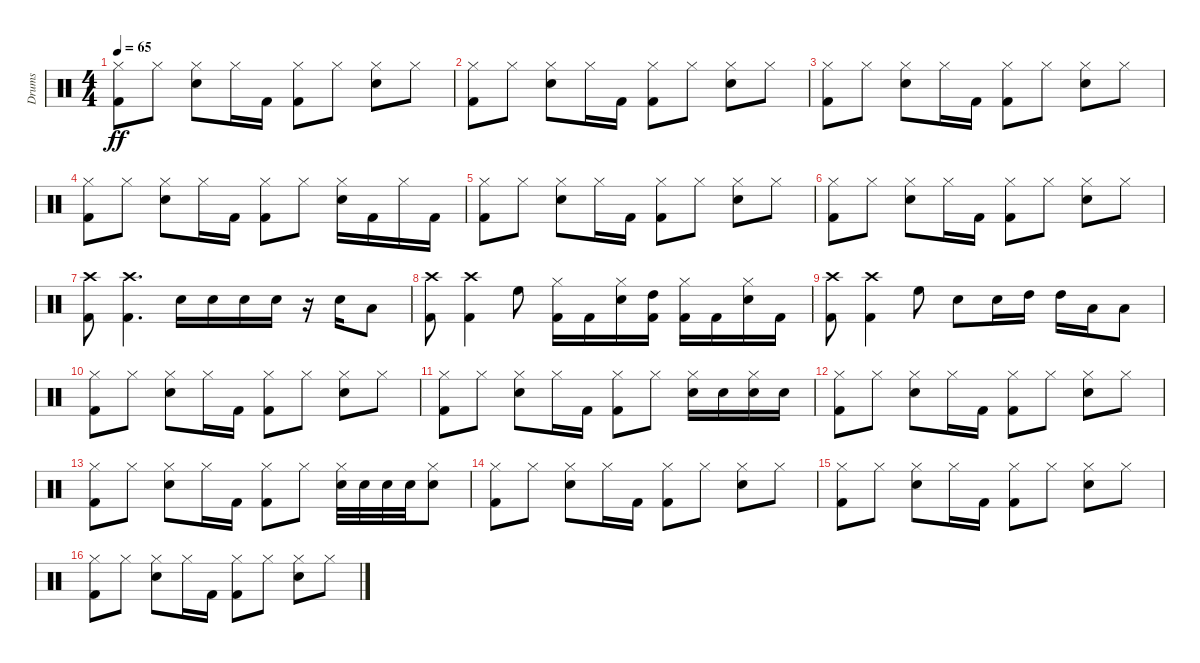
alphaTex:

\track ("Drums" "Drums") {instrument percussion}
\staff {score}
\articulation defaults
\ts (4 4)
\tempo 65
\clef neutral
\ks c
("Hi-Hat (closed)" "Kick (hit) 2").8{dy ff} "Hi-Hat (closed)".8 ("Snare (hit) 2" "Hi-Hat (closed)").8 "Hi-Hat (closed)".16 "Kick (hit) 2".16 ("Hi-Hat (closed)" "Kick (hit) 2").8 "Hi-Hat (closed)".8 ("Hi-Hat (closed)" "Snare (hit) 2").8 "Hi-Hat (closed)".8 |
("Hi-Hat (closed)" "Kick (hit) 2").8 "Hi-Hat (closed)".8 ("Snare (hit) 2" "Hi-Hat (closed)").8 "Hi-Hat (closed)".16 "Kick (hit) 2".16 ("Hi-Hat (closed)" "Kick (hit) 2").8 "Hi-Hat (closed)".8 ("Hi-Hat (closed)" "Snare (hit) 2").8 "Hi-Hat (closed)".8 |
("Hi-Hat (closed)" "Kick (hit) 2").8 "Hi-Hat (closed)".8 ("Snare (hit) 2" "Hi-Hat (closed)").8 "Hi-Hat (closed)".16 "Kick (hit) 2".16 ("Hi-Hat (closed)" "Kick (hit) 2").8 "Hi-Hat (closed)".8 ("Hi-Hat (closed)" "Snare (hit) 2").8 "Hi-Hat (closed)".8 |
("Hi-Hat (closed)" "Kick (hit) 2").8 "Hi-Hat (closed)".8 ("Snare (hit) 2" "Hi-Hat (closed)").8 "Hi-Hat (closed)".16 "Kick (hit) 2".16 ("Hi-Hat (closed)" "Kick (hit) 2").8 "Hi-Hat (closed)".8 ("Hi-Hat (closed)" "Snare (hit) 2").16 "Kick (hit) 2".16 "Hi-Hat (closed)".16 "Kick (hit) 2".16 |
("Hi-Hat (closed)" "Kick (hit) 2").8 "Hi-Hat (closed)".8 ("Snare (hit) 2" "Hi-Hat (closed)").8 "Hi-Hat (closed)".16 "Kick (hit) 2".16 ("Hi-Hat (closed)" "Kick (hit) 2").8 "Hi-Hat (closed)".8 ("Hi-Hat (closed)" "Snare (hit) 2").8 "Hi-Hat (closed)".8 |
("Hi-Hat (closed)" "Kick (hit) 2").8 "Hi-Hat (closed)".8 ("Snare (hit) 2" "Hi-Hat (closed)").8 "Hi-Hat (closed)".16 "Kick (hit) 2".16 ("Hi-Hat (closed)" "Kick (hit) 2").8 "Hi-Hat (closed)".8 ("Hi-Hat (closed)" "Snare (hit) 2").8 "Hi-Hat (closed)".8 |
("Crash high (hit)" "Kick (hit) 2").8 ("Crash high (hit)" "Kick (hit) 2").4{d} "Electric Snare (hit)".16 "Electric Snare (hit)".16 "Electric Snare (hit)".16 "Electric Snare (hit)".16 r.16 "Electric Snare (hit)".16 "Low Floor Tom (hit)".8 |
("Crash high (hit)" "Kick (hit) 2").8 ("Kick (hit) 2" "Crash high (hit)").4 "High Floor Tom (hit)".8 ("Kick (hit) 2" "Hi-Hat (closed)").16 "Kick (hit) 2".16 ("Electric Snare (hit)" "Hi-Hat (closed)").16 ("Kick (hit) 2" "High Tom (hit)").16 ("Kick (hit) 2" "Hi-Hat (closed)").16 "Kick (hit) 2".16 ("Electric Snare (hit)" "Hi-Hat (closed)").16 "Kick (hit) 2".16 |
("Crash high (hit)" "Kick (hit) 2").8 ("Crash high (hit)" "Kick (hit) 2").4 "High Floor Tom (hit)".8 "Electric Snare (hit)".8 "Electric Snare (hit)".16 "High Tom (hit)".16 "High Tom (hit)".16 "Low Tom (hit)".16 "Low Floor Tom (hit)".8 |
("Hi-Hat (closed)" "Kick (hit) 2").8 "Hi-Hat (closed)".8 ("Snare (hit) 2" "Hi-Hat (closed)").8 "Hi-Hat (closed)".16 "Kick (hit) 2".16 ("Hi-Hat (closed)" "Kick (hit) 2").8 "Hi-Hat (closed)".8 ("Hi-Hat (closed)" "Snare (hit) 2").8 "Hi-Hat (closed)".8 |
("Hi-Hat (closed)" "Kick (hit) 2").8 "Hi-Hat (closed)".8 ("Snare (hit) 2" "Hi-Hat (closed)").8 "Hi-Hat (closed)".16 "Kick (hit) 2".16 ("Hi-Hat (closed)" "Kick (hit) 2").8 "Hi-Hat (closed)".8 ("Snare (hit) 2" "Hi-Hat (closed)").16 "Snare (hit) 2".16 ("Snare (hit) 2" "Hi-Hat (closed)").16 "Snare (hit) 2".16 |
("Hi-Hat (closed)" "Kick (hit) 2").8 "Hi-Hat (closed)".8 ("Snare (hit) 2" "Hi-Hat (closed)").8 "Hi-Hat (closed)".16 "Kick (hit) 2".16 ("Hi-Hat (closed)" "Kick (hit) 2").8 "Hi-Hat (closed)".8 ("Hi-Hat (closed)" "Snare (hit) 2").8 "Hi-Hat (closed)".8 |
("Hi-Hat (closed)" "Kick (hit) 2").8 "Hi-Hat (closed)".8 ("Snare (hit) 2" "Hi-Hat (closed)").8 "Hi-Hat (closed)".16 "Kick (hit) 2".16 ("Hi-Hat (closed)" "Kick (hit) 2").8 "Hi-Hat (closed)".8 ("Snare (hit) 2" "Hi-Hat (closed)").32 "Snare (hit) 2".32 "Snare (hit) 2".32 "Snare (hit) 2".32 ("Snare (hit) 2" "Hi-Hat (closed)").8 |
("Hi-Hat (closed)" "Kick (hit) 2").8 "Hi-Hat (closed)".8 ("Snare (hit) 2" "Hi-Hat (closed)").8 "Hi-Hat (closed)".16 "Kick (hit) 2".16 ("Hi-Hat (closed)" "Kick (hit) 2").8 "Hi-Hat (closed)".8 ("Hi-Hat (closed)" "Snare (hit) 2").8 "Hi-Hat (closed)".8 |
("Hi-Hat (closed)" "Kick (hit) 2").8 "Hi-Hat (closed)".8 ("Snare (hit) 2" "Hi-Hat (closed)").8 "Hi-Hat (closed)".16 "Kick (hit) 2".16 ("Hi-Hat (closed)" "Kick (hit) 2").8 "Hi-Hat (closed)".8 ("Hi-Hat (closed)" "Snare (hit) 2").8 "Hi-Hat (closed)".8 |
("Hi-Hat (closed)" "Kick (hit) 2").8 "Hi-Hat (closed)".8 ("Snare (hit) 2" "Hi-Hat (closed)").8 "Hi-Hat (closed)".16 "Kick (hit) 2".16 ("Hi-Hat (closed)" "Kick (hit) 2").8 "Hi-Hat (closed)".8 ("Hi-Hat (closed)" "Snare (hit) 2").8 "Hi-Hat (closed)".8
